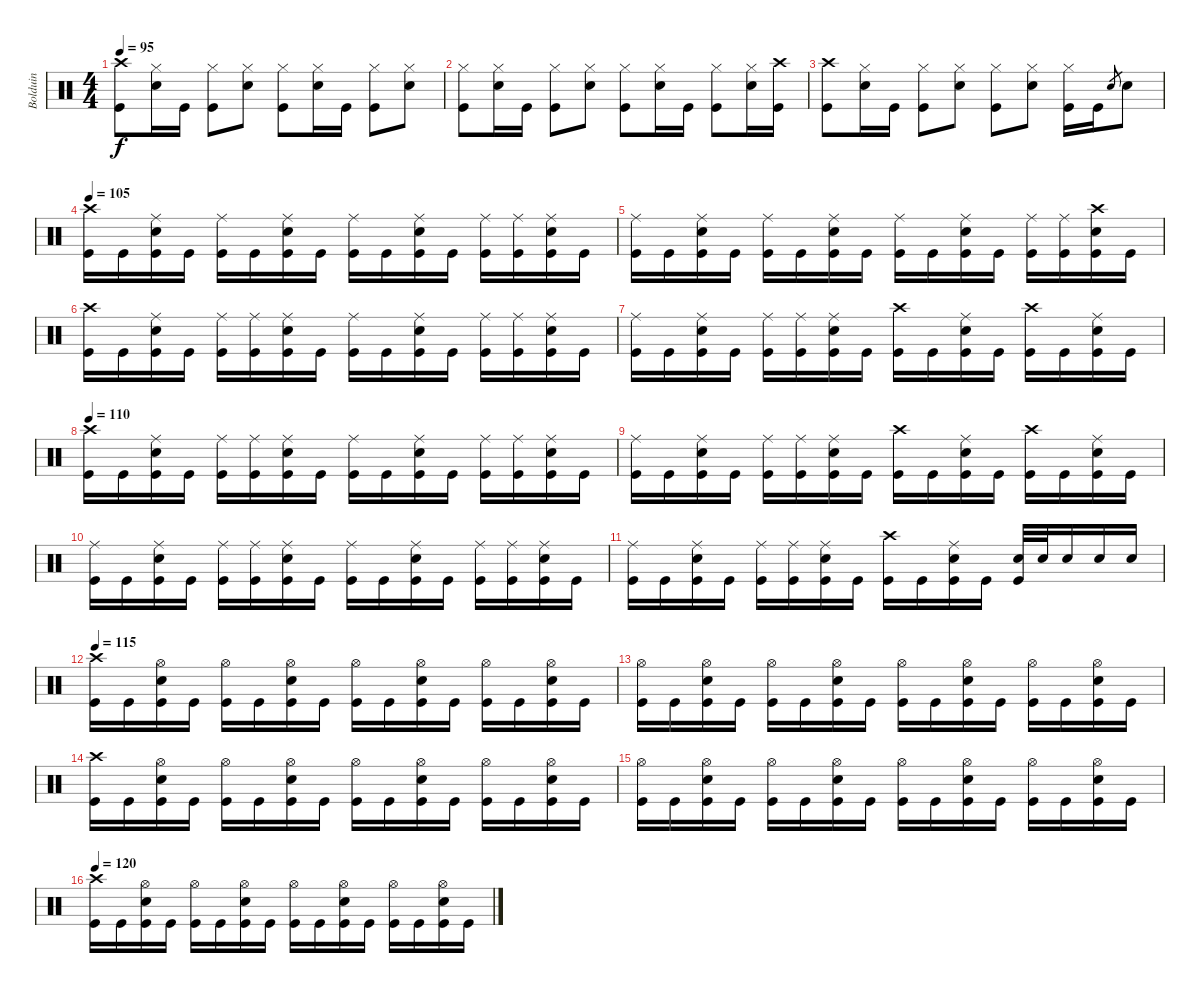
\track ("Bolduin" "Bolduin") {instrument percussion}
\staff {score}
\articulation defaults
\ts (4 4)
\tempo 95
\clef neutral
\ks aminor
("Kick (hit)" "Crash high (hit)").8{dy f} ("Snare (hit) 2" "Hi-Hat (closed)").16 "Kick (hit)".16 ("Kick (hit)" "Hi-Hat (closed)").8 ("Snare (hit) 2" "Hi-Hat (closed)").8 ("Kick (hit)" "Hi-Hat (closed)").8 ("Snare (hit) 2" "Hi-Hat (closed)").16 "Kick (hit)".16 ("Kick (hit)" "Hi-Hat (closed)").8 ("Snare (hit) 2" "Hi-Hat (closed)").8 |
("Kick (hit)" "Hi-Hat (closed)").8 ("Snare (hit) 2" "Hi-Hat (closed)").16 "Kick (hit)".16 ("Kick (hit)" "Hi-Hat (closed)").8 ("Snare (hit) 2" "Hi-Hat (closed)").8 ("Kick (hit)" "Hi-Hat (closed)").8 ("Snare (hit) 2" "Hi-Hat (closed)").16 "Kick (hit)".16 ("Kick (hit)" "Hi-Hat (closed)").8 ("Snare (hit) 2" "Hi-Hat (closed)").16 ("Kick (hit)" "Crash high (hit)").16 |
("Kick (hit)" "Crash high (hit)").8 ("Snare (hit) 2" "Hi-Hat (closed)").16 "Kick (hit)".16 ("Kick (hit)" "Hi-Hat (closed)").8 ("Snare (hit) 2" "Hi-Hat (closed)").8 ("Kick (hit)" "Hi-Hat (closed)").8 ("Snare (hit) 2" "Hi-Hat (closed)").8 ("Kick (hit)" "Hi-Hat (closed)").16 "Kick (hit)".16 "Snare (hit) 2".8{gr} "Snare (hit) 2".8 |
\tempo 105
("Kick (hit)" "Crash high (hit)").16 "Kick (hit)".16 ("Kick (hit)" "Snare (hit) 2" "Ride (middle)").16 "Kick (hit)".16 ("Kick (hit)" "Ride (middle)").16 "Kick (hit)".16 ("Kick (hit)" "Snare (hit) 2" "Ride (middle)").16 "Kick (hit)".16 ("Kick (hit)" "Ride (middle)").16 "Kick (hit)".16 ("Kick (hit)" "Snare (hit) 2" "Ride (middle)").16 "Kick (hit)".16 ("Kick (hit)" "Ride (middle)").16 ("Kick (hit)" "Ride (middle)").16 ("Kick (hit)" "Snare (hit) 2" "Ride (middle)").16 "Kick (hit)".16 |
("Kick (hit)" "Ride (middle)").16 "Kick (hit)".16 ("Kick (hit)" "Snare (hit) 2" "Ride (middle)").16 "Kick (hit)".16 ("Kick (hit)" "Ride (middle)").16 "Kick (hit)".16 ("Kick (hit)" "Snare (hit) 2" "Ride (middle)").16 "Kick (hit)".16 ("Kick (hit)" "Ride (middle)").16 "Kick (hit)".16 ("Kick (hit)" "Snare (hit) 2" "Ride (middle)").16 "Kick (hit)".16 ("Kick (hit)" "Ride (middle)").16 ("Kick (hit)" "Ride (middle)").16 ("Kick (hit)" "Snare (hit) 2" "Crash high (hit)").16 "Kick (hit)".16 |
("Kick (hit)" "Crash high (hit)").16 "Kick (hit)".16 ("Kick (hit)" "Snare (hit) 2" "Ride (middle)").16 "Kick (hit)".16 ("Kick (hit)" "Ride (middle)").16 ("Kick (hit)" "Ride (middle)").16 ("Kick (hit)" "Snare (hit) 2" "Ride (middle)").16 "Kick (hit)".16 ("Kick (hit)" "Ride (middle)").16 "Kick (hit)".16 ("Kick (hit)" "Snare (hit) 2" "Ride (middle)").16 "Kick (hit)".16 ("Kick (hit)" "Ride (middle)").16 ("Kick (hit)" "Ride (middle)").16 ("Kick (hit)" "Snare (hit) 2" "Ride (middle)").16 "Kick (hit)".16 |
("Kick (hit)" "Ride (middle)").16 "Kick (hit)".16 ("Kick (hit)" "Snare (hit) 2" "Ride (middle)").16 "Kick (hit)".16 ("Kick (hit)" "Ride (middle)").16 ("Kick (hit)" "Ride (middle)").16 ("Kick (hit)" "Snare (hit) 2" "Ride (middle)").16 "Kick (hit)".16 ("Kick (hit)" "Crash high (hit)").16 "Kick (hit)".16 ("Kick (hit)" "Snare (hit) 2" "Ride (middle)").16 "Kick (hit)".16 ("Kick (hit)" "Crash high (hit)").16 "Kick (hit)".16 ("Kick (hit)" "Snare (hit) 2" "Ride (middle)").16 "Kick (hit)".16 |
\tempo 110
("Kick (hit)" "Crash high (hit)").16 "Kick (hit)".16 ("Kick (hit)" "Snare (hit) 2" "Ride (middle)").16 "Kick (hit)".16 ("Kick (hit)" "Ride (middle)").16 ("Kick (hit)" "Ride (middle)").16 ("Kick (hit)" "Snare (hit) 2" "Ride (middle)").16 "Kick (hit)".16 ("Kick (hit)" "Ride (middle)").16 "Kick (hit)".16 ("Kick (hit)" "Snare (hit) 2" "Ride (middle)").16 "Kick (hit)".16 ("Kick (hit)" "Ride (middle)").16 ("Kick (hit)" "Ride (middle)").16 ("Kick (hit)" "Snare (hit) 2" "Ride (middle)").16 "Kick (hit)".16 |
("Kick (hit)" "Ride (middle)").16 "Kick (hit)".16 ("Kick (hit)" "Snare (hit) 2" "Ride (middle)").16 "Kick (hit)".16 ("Kick (hit)" "Ride (middle)").16 ("Kick (hit)" "Ride (middle)").16 ("Kick (hit)" "Snare (hit) 2" "Ride (middle)").16 "Kick (hit)".16 ("Kick (hit)" "Crash high (hit)").16 "Kick (hit)".16 ("Kick (hit)" "Snare (hit) 2" "Ride (middle)").16 "Kick (hit)".16 ("Kick (hit)" "Crash high (hit)").16 "Kick (hit)".16 ("Kick (hit)" "Snare (hit) 2" "Ride (middle)").16 "Kick (hit)".16 |
("Kick (hit)" "Ride (middle)").16 "Kick (hit)".16 ("Kick (hit)" "Snare (hit) 2" "Ride (middle)").16 "Kick (hit)".16 ("Kick (hit)" "Ride (middle)").16 ("Kick (hit)" "Ride (middle)").16 ("Kick (hit)" "Snare (hit) 2" "Ride (middle)").16 "Kick (hit)".16 ("Kick (hit)" "Ride (middle)").16 "Kick (hit)".16 ("Kick (hit)" "Snare (hit) 2" "Ride (middle)").16 "Kick (hit)".16 ("Kick (hit)" "Ride (middle)").16 ("Kick (hit)" "Ride (middle)").16 ("Kick (hit)" "Snare (hit) 2" "Ride (middle)").16 "Kick (hit)".16 |
("Kick (hit)" "Ride (middle)").16 "Kick (hit)".16 ("Kick (hit)" "Snare (hit) 2" "Ride (middle)").16 "Kick (hit)".16 ("Kick (hit)" "Ride (middle)").16 ("Kick (hit)" "Ride (middle)").16 ("Kick (hit)" "Snare (hit) 2" "Ride (middle)").16 "Kick (hit)".16 ("Kick (hit)" "Crash high (hit)").16 "Kick (hit)".16 ("Kick (hit)" "Snare (hit) 2" "Ride (middle)").16 "Kick (hit)".16 ("Snare (hit) 2" "Kick (hit)").32 "Snare (hit) 2".32 "Snare (hit) 2".16 "Snare (hit) 2".16 "Snare (hit) 2".16 |
\tempo 115
("Kick (hit)" "Crash high (hit)").16 "Kick (hit)".16 ("Kick (hit)" "Snare (hit) 2" "Hi-Hat (open)").16 "Kick (hit)".16 ("Kick (hit)" "Hi-Hat (open)").16 "Kick (hit)".16 ("Kick (hit)" "Snare (hit) 2" "Hi-Hat (open)").16 "Kick (hit)".16 ("Kick (hit)" "Hi-Hat (open)").16 "Kick (hit)".16 ("Kick (hit)" "Snare (hit) 2" "Hi-Hat (open)").16 "Kick (hit)".16 ("Kick (hit)" "Hi-Hat (open)").16 "Kick (hit)".16 ("Kick (hit)" "Snare (hit) 2" "Hi-Hat (open)").16 "Kick (hit)".16 |
("Kick (hit)" "Hi-Hat (open)").16 "Kick (hit)".16 ("Kick (hit)" "Snare (hit) 2" "Hi-Hat (open)").16 "Kick (hit)".16 ("Kick (hit)" "Hi-Hat (open)").16 "Kick (hit)".16 ("Kick (hit)" "Snare (hit) 2" "Hi-Hat (open)").16 "Kick (hit)".16 ("Kick (hit)" "Hi-Hat (open)").16 "Kick (hit)".16 ("Kick (hit)" "Snare (hit) 2" "Hi-Hat (open)").16 "Kick (hit)".16 ("Kick (hit)" "Hi-Hat (open)").16 "Kick (hit)".16 ("Kick (hit)" "Snare (hit) 2" "Hi-Hat (open)").16 "Kick (hit)".16 |
("Kick (hit)" "Crash high (hit)").16 "Kick (hit)".16 ("Kick (hit)" "Snare (hit) 2" "Hi-Hat (open)").16 "Kick (hit)".16 ("Kick (hit)" "Hi-Hat (open)").16 "Kick (hit)".16 ("Kick (hit)" "Snare (hit) 2" "Hi-Hat (open)").16 "Kick (hit)".16 ("Kick (hit)" "Hi-Hat (open)").16 "Kick (hit)".16 ("Kick (hit)" "Snare (hit) 2" "Hi-Hat (open)").16 "Kick (hit)".16 ("Kick (hit)" "Hi-Hat (open)").16 "Kick (hit)".16 ("Kick (hit)" "Snare (hit) 2" "Hi-Hat (open)").16 "Kick (hit)".16 |
("Kick (hit)" "Hi-Hat (open)").16 "Kick (hit)".16 ("Kick (hit)" "Snare (hit) 2" "Hi-Hat (open)").16 "Kick (hit)".16 ("Kick (hit)" "Hi-Hat (open)").16 "Kick (hit)".16 ("Kick (hit)" "Snare (hit) 2" "Hi-Hat (open)").16 "Kick (hit)".16 ("Kick (hit)" "Hi-Hat (open)").16 "Kick (hit)".16 ("Kick (hit)" "Snare (hit) 2" "Hi-Hat (open)").16 "Kick (hit)".16 ("Kick (hit)" "Hi-Hat (open)").16 "Kick (hit)".16 ("Kick (hit)" "Snare (hit) 2" "Hi-Hat (open)").16 "Kick (hit)".16 |
\tempo 120
("Kick (hit)" "Crash high (hit)").16 "Kick (hit)".16 ("Kick (hit)" "Snare (hit) 2" "Hi-Hat (open)").16 "Kick (hit)".16 ("Kick (hit)" "Hi-Hat (open)").16 "Kick (hit)".16 ("Kick (hit)" "Snare (hit) 2" "Hi-Hat (open)").16 "Kick (hit)".16 ("Kick (hit)" "Hi-Hat (open)").16 "Kick (hit)".16 ("Kick (hit)" "Snare (hit) 2" "Hi-Hat (open)").16 "Kick (hit)".16 ("Kick (hit)" "Hi-Hat (open)").16 "Kick (hit)".16 ("Kick (hit)" "Snare (hit) 2" "Hi-Hat (open)").16 "Kick (hit)".16
